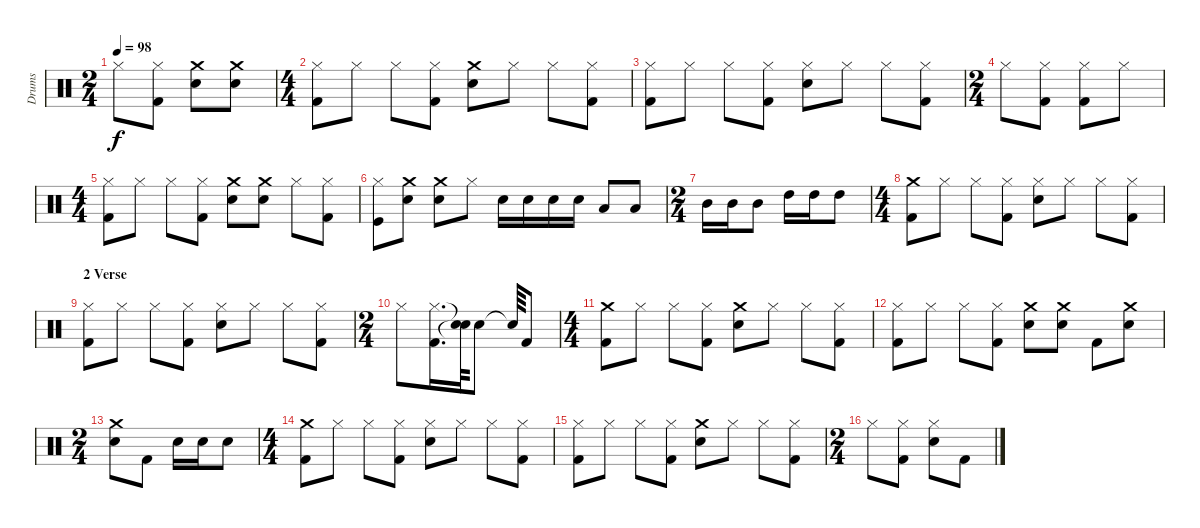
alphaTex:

\track ("Drums" "Drums") {instrument percussion}
\staff {score}
\articulation defaults
\ts (2 4)
\tempo 98
\clef neutral
\ks c "Hi-Hat (closed)".8{dy f}
("Kick (hit) 2" "Hi-Hat (closed)").8 ("Crash medium (hit)" "Snare (hit) 2").8 ("Crash medium (hit)" "Snare (hit) 2").8 |
\ts (4 4)
("Kick (hit) 2" "Hi-Hat (closed)").8 "Hi-Hat (closed)".8 "Hi-Hat (closed)".8 ("Kick (hit) 2" "Hi-Hat (closed)").8 ("Crash medium (hit)" "Snare (hit) 2").8 "Hi-Hat (closed)".8 "Hi-Hat (closed)".8 ("Kick (hit) 2" "Hi-Hat (closed)").8 |
("Hi-Hat (closed)" "Kick (hit) 2").8 "Hi-Hat (closed)".8 "Hi-Hat (closed)".8 ("Kick (hit) 2" "Hi-Hat (closed)").8 ("Snare (hit) 2" "Hi-Hat (closed)").8 "Hi-Hat (closed)".8 "Hi-Hat (closed)".8 ("Kick (hit) 2" "Hi-Hat (closed)").8 |
\ts (2 4)
"Hi-Hat (closed)".8 ("Hi-Hat (closed)" "Kick (hit) 2").8 ("Hi-Hat (closed)" "Kick (hit) 2").8 "Hi-Hat (closed)".8 |
\ts (4 4)
("Hi-Hat (closed)" "Kick (hit) 2").8 "Hi-Hat (closed)".8 "Hi-Hat (closed)".8 ("Kick (hit) 2" "Hi-Hat (closed)").8 ("Crash medium (hit)" "Snare (hit) 2").8 ("Crash medium (hit)" "Snare (hit) 2").8 "Hi-Hat (closed)".8 ("Kick (hit) 2" "Hi-Hat (closed)").8 |
("Hi-Hat (closed)" "Kick (hit)").8 ("Crash medium (hit)" "Snare (hit) 2").8 ("Crash medium (hit)" "Snare (hit) 2").8 "Hi-Hat (closed)".8 "Snare (hit) 2".16 "Snare (hit) 2".16 "Snare (hit) 2".16 "Snare (hit) 2".16 "Low Tom (hit)".8 "Low Tom (hit)".8 |
\ts (2 4)
"Mid Tom (hit)".16 "Mid Tom (hit)".16 "Mid Tom (hit)".8 "High Tom (hit)".16 "High Tom (hit)".16 "High Tom (hit)".8 |
\ts (4 4)
("Kick (hit) 2" "Crash medium (hit)").8 "Hi-Hat (closed)".8 "Hi-Hat (closed)".8 ("Kick (hit) 2" "Hi-Hat (closed)").8 ("Snare (hit) 2" "Hi-Hat (closed)").8 "Hi-Hat (closed)".8 "Hi-Hat (closed)".8 ("Kick (hit) 2" "Hi-Hat (closed)").8 |
\section ("" "2 Verse")
("Kick (hit) 2" "Hi-Hat (closed)").8 "Hi-Hat (closed)".8 "Hi-Hat (closed)".8 ("Kick (hit) 2" "Hi-Hat (closed)").8 ("Hi-Hat (closed)" "Snare (hit) 2").8 "Hi-Hat (closed)".8 "Hi-Hat (closed)".8 ("Kick (hit) 2" "Hi-Hat (closed)").8 |
\ts (2 4)
"Hi-Hat (closed)".8 ("Kick (hit) 2" "Hi-Hat (closed)").16{d} ("Snare (hit)"{t} "Snare (hit)"{t}).64 "Snare (hit) 2".8 "Snare (hit)"{t}.64 "Kick (hit) 2".8 |
\ts (4 4)
("Crash medium (hit)" "Kick (hit) 2").8 "Hi-Hat (closed)".8 "Hi-Hat (closed)".8 ("Kick (hit) 2" "Hi-Hat (closed)").8 ("Crash medium (hit)" "Snare (hit) 2").8 "Hi-Hat (closed)".8 "Hi-Hat (closed)".8 ("Kick (hit) 2" "Hi-Hat (closed)").8 |
("Hi-Hat (closed)" "Kick (hit) 2").8 "Hi-Hat (closed)".8 "Hi-Hat (closed)".8 ("Hi-Hat (closed)" "Kick (hit) 2").8 ("Crash medium (hit)" "Snare (hit) 2").8 ("Crash medium (hit)" "Snare (hit) 2").8 "Kick (hit) 2".8 ("Crash medium (hit)" "Snare (hit) 2").8 |
\ts (2 4)
("Snare (hit) 2" "Crash medium (hit)").8 "Kick (hit) 2".8 "Snare (hit) 2".16 "Snare (hit) 2".16 "Snare (hit) 2".8 |
\ts (4 4)
("Kick (hit) 2" "Crash medium (hit)").8 "Hi-Hat (closed)".8 "Hi-Hat (closed)".8 ("Kick (hit) 2" "Hi-Hat (closed)").8 ("Snare (hit) 2" "Hi-Hat (closed)").8 "Hi-Hat (closed)".8 "Hi-Hat (closed)".8 ("Kick (hit) 2" "Hi-Hat (closed)").8 |
("Hi-Hat (closed)" "Kick (hit) 2").8 "Hi-Hat (closed)".8 "Hi-Hat (closed)".8 ("Hi-Hat (closed)" "Kick (hit) 2").8 ("Crash medium (hit)" "Snare (hit) 2").8 "Hi-Hat (closed)".8 "Hi-Hat (closed)".8 ("Hi-Hat (closed)" "Kick (hit) 2").8 |
\ts (2 4)
"Hi-Hat (closed)".8 ("Kick (hit) 2" "Hi-Hat (closed)").8 ("Snare (hit) 2" "Hi-Hat (closed)").8 "Kick (hit) 2".8
